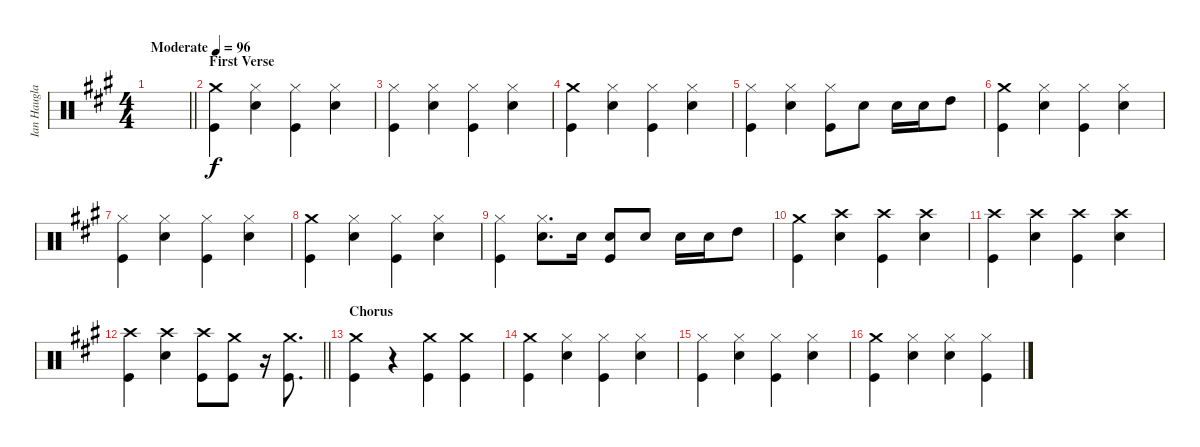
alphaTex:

\track ("Ian Haugland" "Ian Haugla") {instrument percussion}
\staff {score}
\articulation defaults
\ts (4 4)
\tempo (96 "Moderate")
\clef neutral
\barLineRight lightlight
\ks a
|
\section ("" "First Verse")
("Crash medium (hit)" "Kick (hit)").4 ("Hi-Hat (closed)" "Snare (hit) 2").4 ("Hi-Hat (closed)" "Kick (hit)").4 ("Hi-Hat (closed)" "Snare (hit) 2").4 |
("Hi-Hat (closed)" "Kick (hit)").4 ("Hi-Hat (closed)" "Snare (hit) 2").4 ("Hi-Hat (closed)" "Kick (hit)").4 ("Hi-Hat (closed)" "Snare (hit) 2").4 |
("Crash medium (hit)" "Kick (hit)").4 ("Hi-Hat (closed)" "Snare (hit) 2").4 ("Hi-Hat (closed)" "Kick (hit)").4 ("Hi-Hat (closed)" "Snare (hit) 2").4 |
("Hi-Hat (closed)" "Kick (hit)").4 ("Hi-Hat (closed)" "Snare (hit) 2").4 ("Hi-Hat (closed)" "Kick (hit)").8 "Snare (hit) 2".8 "Snare (hit) 2".16 "Snare (hit) 2".16 "High Tom (hit)".8 |
("Crash medium (hit)" "Kick (hit)").4 ("Hi-Hat (closed)" "Snare (hit) 2").4 ("Hi-Hat (closed)" "Kick (hit)").4 ("Hi-Hat (closed)" "Snare (hit) 2").4 |
("Hi-Hat (closed)" "Kick (hit)").4 ("Hi-Hat (closed)" "Snare (hit) 2").4 ("Hi-Hat (closed)" "Kick (hit)").4 ("Hi-Hat (closed)" "Snare (hit) 2").4 |
("Crash medium (hit)" "Kick (hit)").4 ("Hi-Hat (closed)" "Snare (hit) 2").4 ("Hi-Hat (closed)" "Kick (hit)").4 ("Hi-Hat (closed)" "Snare (hit) 2").4 |
("Hi-Hat (closed)" "Kick (hit)").4 ("Hi-Hat (closed)" "Snare (hit) 2").8{d} "Snare (hit) 2".16 ("Snare (hit) 2" "Kick (hit)").8 "Snare (hit) 2".8 "Snare (hit) 2".16 "Snare (hit) 2".16 "High Tom (hit)".8 |
("Crash medium (hit)" "Kick (hit)").4 ("Crash high (hit)" "Snare (hit) 2").4 ("Crash high (hit)" "Kick (hit)").4 ("Crash high (hit)" "Snare (hit) 2").4 |
("Crash high (hit)" "Kick (hit)").4 ("Crash high (hit)" "Snare (hit) 2").4 ("Crash high (hit)" "Kick (hit)").4 ("Crash high (hit)" "Snare (hit) 2").4 |
\barLineRight lightlight
("Crash high (hit)" "Kick (hit)").4 ("Crash high (hit)" "Snare (hit) 2").4 ("Crash high (hit)" "Kick (hit)").8 ("Crash medium (hit)" "Kick (hit)").8 r.16 ("Crash medium (hit)" "Kick (hit)").8{d} |
\section ("" "Chorus")
("Crash medium (hit)" "Kick (hit)").4 r.4 ("Crash medium (hit)" "Kick (hit)").4 ("Crash medium (hit)" "Kick (hit)").4 |
("Crash medium (hit)" "Kick (hit)").4 ("Hi-Hat (closed)" "Snare (hit) 2").4 ("Hi-Hat (closed)" "Kick (hit)").4 ("Hi-Hat (closed)" "Snare (hit) 2").4 |
("Hi-Hat (closed)" "Kick (hit)").4 ("Hi-Hat (closed)" "Snare (hit) 2").4 ("Hi-Hat (closed)" "Kick (hit)").4 ("Hi-Hat (closed)" "Snare (hit) 2").4 |
("Crash medium (hit)" "Kick (hit)").4 ("Hi-Hat (closed)" "Snare (hit) 2").4 ("Hi-Hat (closed)" "Snare (hit) 2").4 ("Hi-Hat (closed)" "Kick (hit)").4
